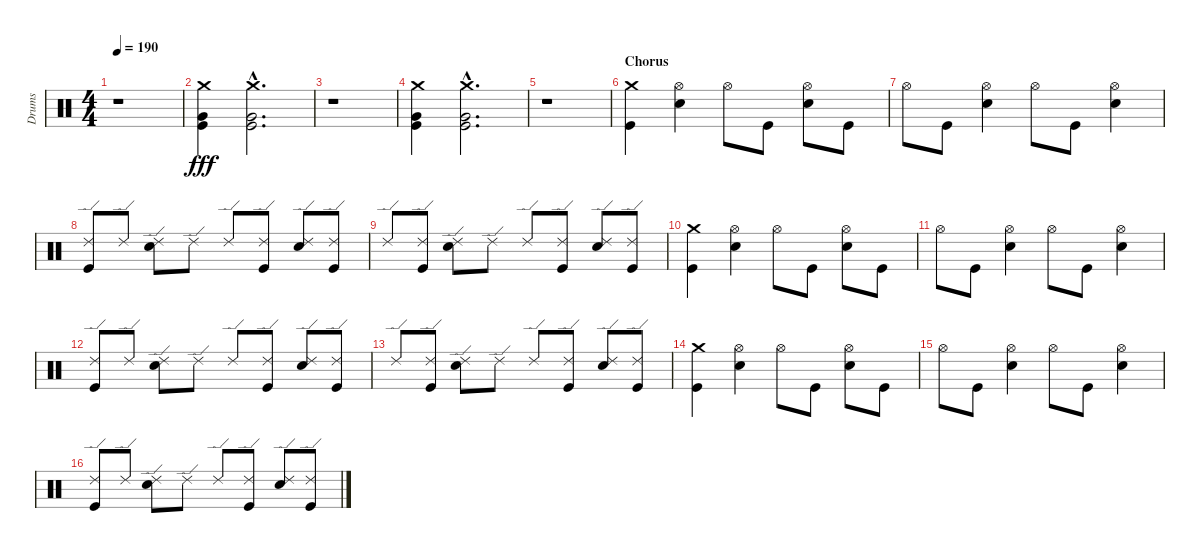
\track ("Drums" "Drums") {instrument percussion}
\staff {score}
\articulation defaults
\ts (4 4)
\tempo 190
\clef neutral
\ks c
r.1{dy fff} |
("Crash medium (hit)" "Very Low Tom (hit)" "Kick (hit)").4 ("Crash medium (hit)"{hac} "Very Low Tom (hit)"{hac} "Kick (hit)"{hac}).2{d} |
r.1 |
("Crash medium (hit)" "Very Low Tom (hit)" "Kick (hit)").4 ("Crash medium (hit)"{hac} "Very Low Tom (hit)"{hac} "Kick (hit)"{hac}).2{d} |
r.1 |
\section ("" "Chorus")
("Crash medium (hit)" "Kick (hit)").4 ("Hi-Hat (open)" "Snare (hit) 2").4 "Hi-Hat (open)".8 "Kick (hit)".8 ("Hi-Hat (open)" "Snare (hit) 2").8 "Kick (hit)".8 |
"Hi-Hat (open)".8 "Kick (hit)".8 ("Hi-Hat (open)" "Snare (hit) 2").4 "Hi-Hat (open)".8 "Kick (hit)".8 ("Hi-Hat (open)" "Snare (hit) 2").4 |
("Ride (edge) 2" "Kick (hit)").8 "Ride (edge) 2".8 ("Ride (edge) 2" "Snare (hit) 2").8 "Ride (edge) 2".8 "Ride (edge) 2".8 ("Ride (edge) 2" "Kick (hit)").8 ("Ride (edge) 2" "Snare (hit) 2").8 ("Ride (edge) 2" "Kick (hit)").8 |
"Ride (edge) 2".8 ("Ride (edge) 2" "Kick (hit)").8 ("Ride (edge) 2" "Snare (hit) 2").8 "Ride (edge) 2".8 "Ride (edge) 2".8 ("Ride (edge) 2" "Kick (hit)").8 ("Ride (edge) 2" "Snare (hit) 2").8 ("Ride (edge) 2" "Kick (hit)").8 |
("Crash medium (hit)" "Kick (hit)").4 ("Hi-Hat (open)" "Snare (hit) 2").4 "Hi-Hat (open)".8 "Kick (hit)".8 ("Hi-Hat (open)" "Snare (hit) 2").8 "Kick (hit)".8 |
"Hi-Hat (open)".8 "Kick (hit)".8 ("Hi-Hat (open)" "Snare (hit) 2").4 "Hi-Hat (open)".8 "Kick (hit)".8 ("Hi-Hat (open)" "Snare (hit) 2").4 |
("Ride (edge) 2" "Kick (hit)").8 "Ride (edge) 2".8 ("Ride (edge) 2" "Snare (hit) 2").8 "Ride (edge) 2".8 "Ride (edge) 2".8 ("Ride (edge) 2" "Kick (hit)").8 ("Ride (edge) 2" "Snare (hit) 2").8 ("Ride (edge) 2" "Kick (hit)").8 |
"Ride (edge) 2".8 ("Ride (edge) 2" "Kick (hit)").8 ("Ride (edge) 2" "Snare (hit) 2").8 "Ride (edge) 2".8 "Ride (edge) 2".8 ("Ride (edge) 2" "Kick (hit)").8 ("Ride (edge) 2" "Snare (hit) 2").8 ("Ride (edge) 2" "Kick (hit)").8 |
("Crash medium (hit)" "Kick (hit)").4 ("Hi-Hat (open)" "Snare (hit) 2").4 "Hi-Hat (open)".8 "Kick (hit)".8 ("Hi-Hat (open)" "Snare (hit) 2").8 "Kick (hit)".8 |
"Hi-Hat (open)".8 "Kick (hit)".8 ("Hi-Hat (open)" "Snare (hit) 2").4 "Hi-Hat (open)".8 "Kick (hit)".8 ("Hi-Hat (open)" "Snare (hit) 2").4 |
("Ride (edge) 2" "Kick (hit)").8 "Ride (edge) 2".8 ("Ride (edge) 2" "Snare (hit) 2").8 "Ride (edge) 2".8 "Ride (edge) 2".8 ("Ride (edge) 2" "Kick (hit)").8 ("Ride (edge) 2" "Snare (hit) 2").8 ("Ride (edge) 2" "Kick (hit)").8
